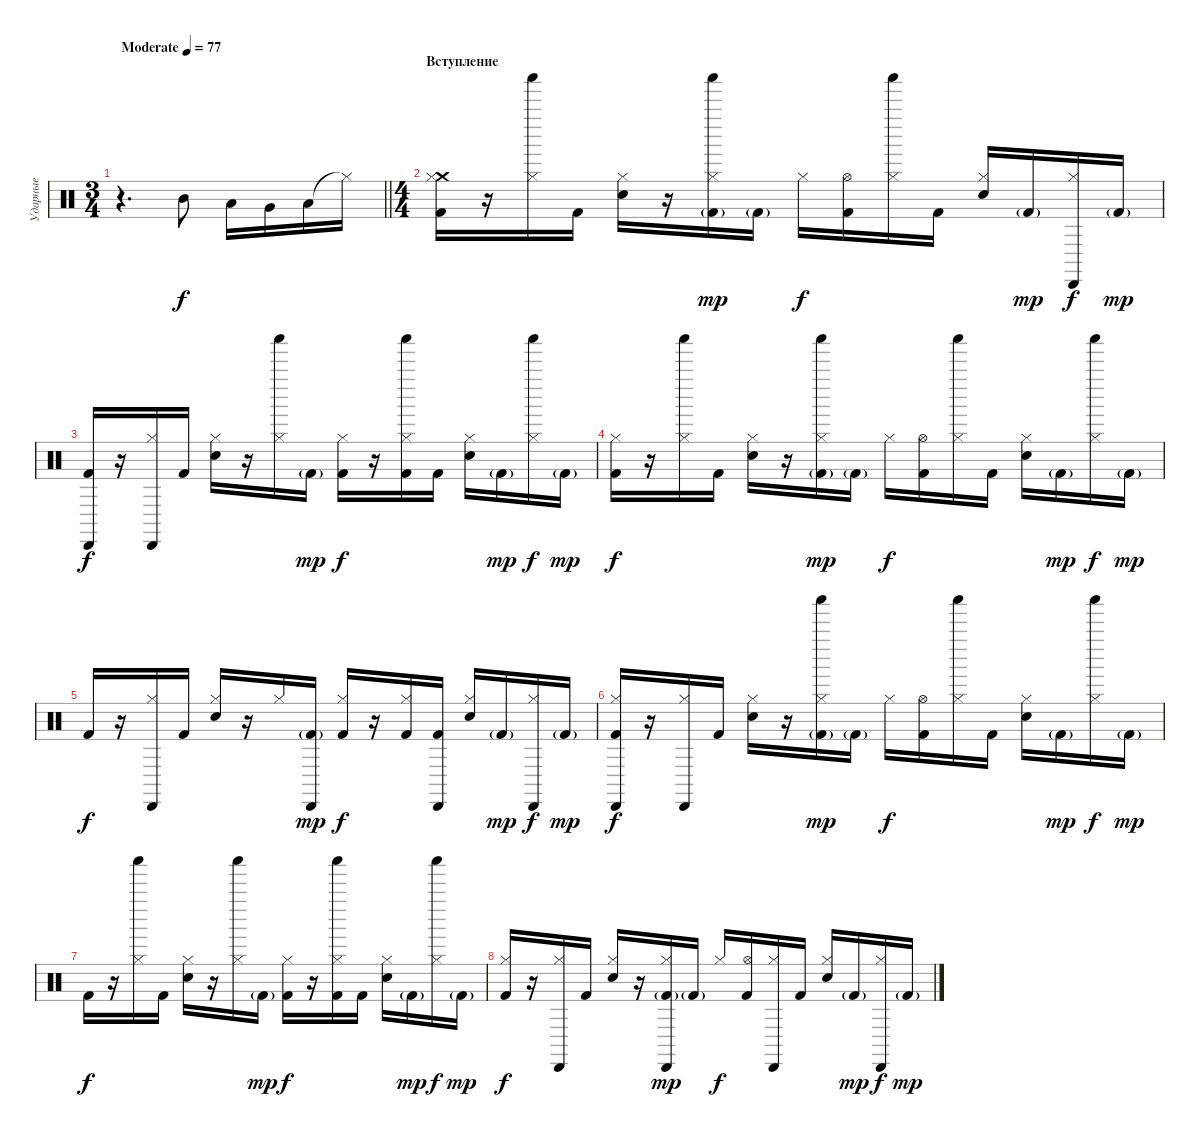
\track ("Ударные" "Ударные") {instrument percussion}
\staff {score}
\articulation defaults
\ts (3 4)
\tempo (77 "Moderate")
\clef neutral
\barLineRight lightlight
\ks c
r.4{d dy f} "Mid Tom (hit)".8 "Low Tom (hit)".16 "Very Low Tom (hit)".16 "Low Floor Tom (hit)".16 "Hi-Hat (closed)"{t}.16 |
\ts (4 4)
\section ("" "Вступление")
("Crash medium (hit)" "Kick (hit) 2" "Hi-Hat (closed)").16 r.16 ("Hi-Hat (closed)" "Shaker (hit)").16 "Kick (hit) 2".16 ("Electric Snare (hit)" "Hi-Hat (closed)").16 r.16 ("Kick (hit) 2"{g} "Hi-Hat (closed)" "Shaker (hit)").16{dy mp} "Kick (hit) 2"{g}.16 "Hi-Hat (closed)".16{dy f} ("Hi-Hat (open)" "Kick (hit) 2").16 ("Hi-Hat (closed)" "Shaker (hit)").16 "Kick (hit) 2".16 ("Electric Snare (hit)" "Hi-Hat (closed)").16 "Kick (hit) 2"{g}.16{dy mp} ("Hi-Hat (closed)" "Cabasa (hit)").16{dy f} "Kick (hit) 2"{g}.16{dy mp} |
("Kick (hit) 2" "Cabasa (hit)").16{dy f} r.16 ("Hi-Hat (closed)" "Cabasa (hit)").16 "Kick (hit) 2".16 ("Electric Snare (hit)" "Hi-Hat (closed)").16 r.16 ("Hi-Hat (closed)" "Shaker (hit)").16 "Kick (hit) 2"{g}.16{dy mp} ("Kick (hit) 2" "Hi-Hat (closed)").16{dy f} r.16 ("Kick (hit) 2" "Hi-Hat (closed)" "Shaker (hit)").16 "Kick (hit) 2".16 ("Electric Snare (hit)" "Hi-Hat (closed)").16 "Kick (hit) 2"{g}.16{dy mp} ("Hi-Hat (closed)" "Shaker (hit)").16{dy f} "Kick (hit) 2"{g}.16{dy mp} |
("Kick (hit) 2" "Hi-Hat (closed)").16{dy f} r.16 ("Hi-Hat (closed)" "Shaker (hit)").16 "Kick (hit) 2".16 ("Electric Snare (hit)" "Hi-Hat (closed)").16 r.16 ("Kick (hit) 2"{g} "Hi-Hat (closed)" "Shaker (hit)").16{dy mp} "Kick (hit) 2"{g}.16 "Hi-Hat (closed)".16{dy f} ("Hi-Hat (open)" "Kick (hit) 2").16 ("Hi-Hat (closed)" "Shaker (hit)").16 "Kick (hit) 2".16 ("Electric Snare (hit)" "Hi-Hat (closed)").16 "Kick (hit) 2"{g}.16{dy mp} ("Hi-Hat (closed)" "Shaker (hit)").16{dy f} "Kick (hit) 2"{g}.16{dy mp} |
"Kick (hit) 2".16{dy f} r.16 ("Hi-Hat (closed)" "Cabasa (hit)").16 "Kick (hit) 2".16 ("Electric Snare (hit)" "Hi-Hat (closed)").16 r.16 "Hi-Hat (closed)".16 ("Kick (hit) 2"{g} "Cabasa (hit)").16{dy mp} ("Kick (hit) 2" "Hi-Hat (closed)").16{dy f} r.16 ("Kick (hit) 2" "Hi-Hat (closed)").16 ("Kick (hit) 2" "Cabasa (hit)").16 ("Electric Snare (hit)" "Hi-Hat (closed)").16 "Kick (hit) 2"{g}.16{dy mp} ("Hi-Hat (closed)" "Cabasa (hit)").16{dy f} "Kick (hit) 2"{g}.16{dy mp} |
("Kick (hit) 2" "Hi-Hat (closed)" "Cabasa (hit)").16{dy f} r.16 ("Hi-Hat (closed)" "Cabasa (hit)").16 "Kick (hit) 2".16 ("Electric Snare (hit)" "Hi-Hat (closed)").16 r.16 ("Kick (hit) 2"{g} "Hi-Hat (closed)" "Shaker (hit)").16{dy mp} "Kick (hit) 2"{g}.16 "Hi-Hat (closed)".16{dy f} ("Hi-Hat (open)" "Kick (hit) 2").16 ("Hi-Hat (closed)" "Shaker (hit)").16 "Kick (hit) 2".16 ("Electric Snare (hit)" "Hi-Hat (closed)").16 "Kick (hit) 2"{g}.16{dy mp} ("Hi-Hat (closed)" "Shaker (hit)").16{dy f} "Kick (hit) 2"{g}.16{dy mp} |
"Kick (hit) 2".16{dy f} r.16 ("Hi-Hat (closed)" "Shaker (hit)").16 "Kick (hit) 2".16 ("Electric Snare (hit)" "Hi-Hat (closed)").16 r.16 ("Hi-Hat (closed)" "Shaker (hit)").16 "Kick (hit) 2"{g}.16{dy mp} ("Kick (hit) 2" "Hi-Hat (closed)").16{dy f} r.16 ("Kick (hit) 2" "Hi-Hat (closed)" "Shaker (hit)").16 "Kick (hit) 2".16 ("Electric Snare (hit)" "Hi-Hat (closed)").16 "Kick (hit) 2"{g}.16{dy mp} ("Hi-Hat (closed)" "Shaker (hit)").16{dy f} "Kick (hit) 2"{g}.16{dy mp} |
("Kick (hit) 2" "Hi-Hat (closed)").16{dy f} r.16 ("Hi-Hat (closed)" "Cabasa (hit)").16 "Kick (hit) 2".16 ("Electric Snare (hit)" "Hi-Hat (closed)").16 r.16 ("Kick (hit) 2"{g} "Hi-Hat (closed)" "Cabasa (hit)").16{dy mp} "Kick (hit) 2"{g}.16 "Hi-Hat (closed)".16{dy f} ("Hi-Hat (open)" "Kick (hit) 2").16 ("Hi-Hat (closed)" "Cabasa (hit)").16 "Kick (hit) 2".16 ("Electric Snare (hit)" "Hi-Hat (closed)").16 "Kick (hit) 2"{g}.16{dy mp} ("Hi-Hat (closed)" "Cabasa (hit)").16{dy f} "Kick (hit) 2"{g}.16{dy mp}
